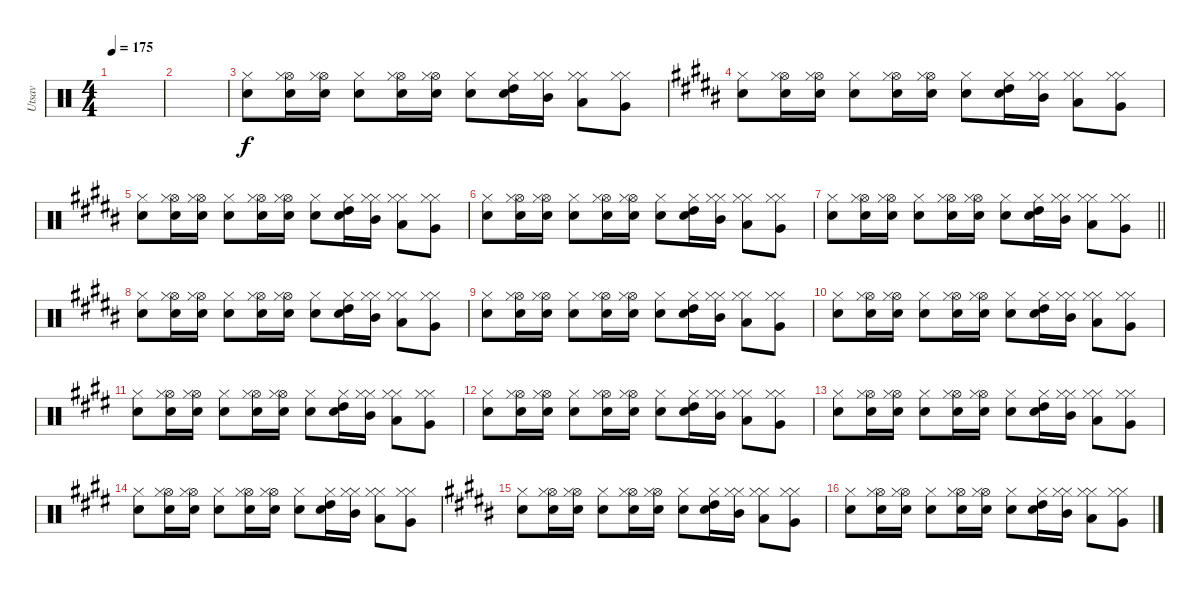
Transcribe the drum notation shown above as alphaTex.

\track ("Utsav" "Utsav") {instrument percussion}
\staff {score}
\articulation defaults
\ts (4 4)
\tempo 175
\clef neutral
\ks c
|
|
("Electric Snare (hit)" "Hi-Hat (closed)").8 ("Hi-Hat (open)" "Snare (hit) 2" "Hi-Hat (closed)").16 ("Hi-Hat (open)" "Snare (hit) 2" "Hi-Hat (closed)").16 ("Electric Snare (hit)" "Hi-Hat (closed)").8 ("Hi-Hat (open)" "Snare (hit) 2" "Hi-Hat (closed)").16 ("Hi-Hat (open)" "Snare (hit) 2" "Hi-Hat (closed)").16 ("Electric Snare (hit)" "Hi-Hat (closed)").8 ("Hi-Hat (closed)" "High Tom (hit)" "Snare (hit)").16 ("Hi-Hat (closed)" "Mid Tom (hit)" "Hi-Hat (closed)").16 ("Hi-Hat (closed)" "Low Tom (hit)" "Hi-Hat (closed)").8 ("Hi-Hat (closed)" "Very Low Tom (hit)" "Hi-Hat (closed)").8 |
\ks b
("Electric Snare (hit)" "Hi-Hat (closed)").8 ("Hi-Hat (open)" "Snare (hit) 2" "Hi-Hat (closed)").16 ("Hi-Hat (open)" "Snare (hit) 2" "Hi-Hat (closed)").16 ("Electric Snare (hit)" "Hi-Hat (closed)").8 ("Hi-Hat (open)" "Snare (hit) 2" "Hi-Hat (closed)").16 ("Hi-Hat (open)" "Snare (hit) 2" "Hi-Hat (closed)").16 ("Electric Snare (hit)" "Hi-Hat (closed)").8 ("Hi-Hat (closed)" "High Tom (hit)" "Snare (hit)").16 ("Hi-Hat (closed)" "Mid Tom (hit)" "Hi-Hat (closed)").16 ("Hi-Hat (closed)" "Low Tom (hit)" "Hi-Hat (closed)").8 ("Hi-Hat (closed)" "Very Low Tom (hit)" "Hi-Hat (closed)").8 |
("Electric Snare (hit)" "Hi-Hat (closed)").8 ("Hi-Hat (open)" "Snare (hit) 2" "Hi-Hat (closed)").16 ("Hi-Hat (open)" "Snare (hit) 2" "Hi-Hat (closed)").16 ("Electric Snare (hit)" "Hi-Hat (closed)").8 ("Hi-Hat (open)" "Snare (hit) 2" "Hi-Hat (closed)").16 ("Hi-Hat (open)" "Snare (hit) 2" "Hi-Hat (closed)").16 ("Electric Snare (hit)" "Hi-Hat (closed)").8 ("Hi-Hat (closed)" "High Tom (hit)" "Snare (hit)").16 ("Hi-Hat (closed)" "Mid Tom (hit)" "Hi-Hat (closed)").16 ("Hi-Hat (closed)" "Low Tom (hit)" "Hi-Hat (closed)").8 ("Hi-Hat (closed)" "Very Low Tom (hit)" "Hi-Hat (closed)").8 |
("Electric Snare (hit)" "Hi-Hat (closed)").8 ("Hi-Hat (open)" "Snare (hit) 2" "Hi-Hat (closed)").16 ("Hi-Hat (open)" "Snare (hit) 2" "Hi-Hat (closed)").16 ("Electric Snare (hit)" "Hi-Hat (closed)").8 ("Hi-Hat (open)" "Snare (hit) 2" "Hi-Hat (closed)").16 ("Hi-Hat (open)" "Snare (hit) 2" "Hi-Hat (closed)").16 ("Electric Snare (hit)" "Hi-Hat (closed)").8 ("Hi-Hat (closed)" "High Tom (hit)" "Snare (hit)").16 ("Hi-Hat (closed)" "Mid Tom (hit)" "Hi-Hat (closed)").16 ("Hi-Hat (closed)" "Low Tom (hit)" "Hi-Hat (closed)").8 ("Hi-Hat (closed)" "Very Low Tom (hit)" "Hi-Hat (closed)").8 |
\barLineRight lightlight
("Electric Snare (hit)" "Hi-Hat (closed)").8 ("Hi-Hat (open)" "Snare (hit) 2" "Hi-Hat (closed)").16 ("Hi-Hat (open)" "Snare (hit) 2" "Hi-Hat (closed)").16 ("Electric Snare (hit)" "Hi-Hat (closed)").8 ("Hi-Hat (open)" "Snare (hit) 2" "Hi-Hat (closed)").16 ("Hi-Hat (open)" "Snare (hit) 2" "Hi-Hat (closed)").16 ("Electric Snare (hit)" "Hi-Hat (closed)").8 ("Hi-Hat (closed)" "High Tom (hit)" "Snare (hit)").16 ("Hi-Hat (closed)" "Mid Tom (hit)" "Hi-Hat (closed)").16 ("Hi-Hat (closed)" "Low Tom (hit)" "Hi-Hat (closed)").8 ("Hi-Hat (closed)" "Very Low Tom (hit)" "Hi-Hat (closed)").8 |
("Electric Snare (hit)" "Hi-Hat (closed)").8 ("Hi-Hat (open)" "Snare (hit) 2" "Hi-Hat (closed)").16 ("Hi-Hat (open)" "Snare (hit) 2" "Hi-Hat (closed)").16 ("Electric Snare (hit)" "Hi-Hat (closed)").8 ("Hi-Hat (open)" "Snare (hit) 2" "Hi-Hat (closed)").16 ("Hi-Hat (open)" "Snare (hit) 2" "Hi-Hat (closed)").16 ("Electric Snare (hit)" "Hi-Hat (closed)").8 ("Hi-Hat (closed)" "High Tom (hit)" "Snare (hit)").16 ("Hi-Hat (closed)" "Mid Tom (hit)" "Hi-Hat (closed)").16 ("Hi-Hat (closed)" "Low Tom (hit)" "Hi-Hat (closed)").8 ("Hi-Hat (closed)" "Very Low Tom (hit)" "Hi-Hat (closed)").8 |
("Electric Snare (hit)" "Hi-Hat (closed)").8 ("Hi-Hat (open)" "Snare (hit) 2" "Hi-Hat (closed)").16 ("Hi-Hat (open)" "Snare (hit) 2" "Hi-Hat (closed)").16 ("Electric Snare (hit)" "Hi-Hat (closed)").8 ("Hi-Hat (open)" "Snare (hit) 2" "Hi-Hat (closed)").16 ("Hi-Hat (open)" "Snare (hit) 2" "Hi-Hat (closed)").16 ("Electric Snare (hit)" "Hi-Hat (closed)").8 ("Hi-Hat (closed)" "High Tom (hit)" "Snare (hit)").16 ("Hi-Hat (closed)" "Mid Tom (hit)" "Hi-Hat (closed)").16 ("Hi-Hat (closed)" "Low Tom (hit)" "Hi-Hat (closed)").8 ("Hi-Hat (closed)" "Very Low Tom (hit)" "Hi-Hat (closed)").8 |
("Electric Snare (hit)" "Hi-Hat (closed)").8 ("Hi-Hat (open)" "Snare (hit) 2" "Hi-Hat (closed)").16 ("Hi-Hat (open)" "Snare (hit) 2" "Hi-Hat (closed)").16 ("Electric Snare (hit)" "Hi-Hat (closed)").8 ("Hi-Hat (open)" "Snare (hit) 2" "Hi-Hat (closed)").16 ("Hi-Hat (open)" "Snare (hit) 2" "Hi-Hat (closed)").16 ("Electric Snare (hit)" "Hi-Hat (closed)").8 ("Hi-Hat (closed)" "High Tom (hit)" "Snare (hit)").16 ("Hi-Hat (closed)" "Mid Tom (hit)" "Hi-Hat (closed)").16 ("Hi-Hat (closed)" "Low Tom (hit)" "Hi-Hat (closed)").8 ("Hi-Hat (closed)" "Very Low Tom (hit)" "Hi-Hat (closed)").8 |
\ks e
("Electric Snare (hit)" "Hi-Hat (closed)").8 ("Hi-Hat (open)" "Snare (hit) 2" "Hi-Hat (closed)").16 ("Hi-Hat (open)" "Snare (hit) 2" "Hi-Hat (closed)").16 ("Electric Snare (hit)" "Hi-Hat (closed)").8 ("Hi-Hat (open)" "Snare (hit) 2" "Hi-Hat (closed)").16 ("Hi-Hat (open)" "Snare (hit) 2" "Hi-Hat (closed)").16 ("Electric Snare (hit)" "Hi-Hat (closed)").8 ("Hi-Hat (closed)" "High Tom (hit)" "Snare (hit)").16 ("Hi-Hat (closed)" "Mid Tom (hit)" "Hi-Hat (closed)").16 ("Hi-Hat (closed)" "Low Tom (hit)" "Hi-Hat (closed)").8 ("Hi-Hat (closed)" "Very Low Tom (hit)" "Hi-Hat (closed)").8 |
("Electric Snare (hit)" "Hi-Hat (closed)").8 ("Hi-Hat (open)" "Snare (hit) 2" "Hi-Hat (closed)").16 ("Hi-Hat (open)" "Snare (hit) 2" "Hi-Hat (closed)").16 ("Electric Snare (hit)" "Hi-Hat (closed)").8 ("Hi-Hat (open)" "Snare (hit) 2" "Hi-Hat (closed)").16 ("Hi-Hat (open)" "Snare (hit) 2" "Hi-Hat (closed)").16 ("Electric Snare (hit)" "Hi-Hat (closed)").8 ("Hi-Hat (closed)" "High Tom (hit)" "Snare (hit)").16 ("Hi-Hat (closed)" "Mid Tom (hit)" "Hi-Hat (closed)").16 ("Hi-Hat (closed)" "Low Tom (hit)" "Hi-Hat (closed)").8 ("Hi-Hat (closed)" "Very Low Tom (hit)" "Hi-Hat (closed)").8 |
("Electric Snare (hit)" "Hi-Hat (closed)").8 ("Hi-Hat (open)" "Snare (hit) 2" "Hi-Hat (closed)").16 ("Hi-Hat (open)" "Snare (hit) 2" "Hi-Hat (closed)").16 ("Electric Snare (hit)" "Hi-Hat (closed)").8 ("Hi-Hat (open)" "Snare (hit) 2" "Hi-Hat (closed)").16 ("Hi-Hat (open)" "Snare (hit) 2" "Hi-Hat (closed)").16 ("Electric Snare (hit)" "Hi-Hat (closed)").8 ("Hi-Hat (closed)" "High Tom (hit)" "Snare (hit)").16 ("Hi-Hat (closed)" "Mid Tom (hit)" "Hi-Hat (closed)").16 ("Hi-Hat (closed)" "Low Tom (hit)" "Hi-Hat (closed)").8 ("Hi-Hat (closed)" "Very Low Tom (hit)" "Hi-Hat (closed)").8 |
("Electric Snare (hit)" "Hi-Hat (closed)").8 ("Hi-Hat (open)" "Snare (hit) 2" "Hi-Hat (closed)").16 ("Hi-Hat (open)" "Snare (hit) 2" "Hi-Hat (closed)").16 ("Electric Snare (hit)" "Hi-Hat (closed)").8 ("Hi-Hat (open)" "Snare (hit) 2" "Hi-Hat (closed)").16 ("Hi-Hat (open)" "Snare (hit) 2" "Hi-Hat (closed)").16 ("Electric Snare (hit)" "Hi-Hat (closed)").8 ("Hi-Hat (closed)" "High Tom (hit)" "Snare (hit)").16 ("Hi-Hat (closed)" "Mid Tom (hit)" "Hi-Hat (closed)").16 ("Hi-Hat (closed)" "Low Tom (hit)" "Hi-Hat (closed)").8 ("Hi-Hat (closed)" "Very Low Tom (hit)" "Hi-Hat (closed)").8 |
\ks b
("Electric Snare (hit)" "Hi-Hat (closed)").8 ("Hi-Hat (open)" "Snare (hit) 2" "Hi-Hat (closed)").16 ("Hi-Hat (open)" "Snare (hit) 2" "Hi-Hat (closed)").16 ("Electric Snare (hit)" "Hi-Hat (closed)").8 ("Hi-Hat (open)" "Snare (hit) 2" "Hi-Hat (closed)").16 ("Hi-Hat (open)" "Snare (hit) 2" "Hi-Hat (closed)").16 ("Electric Snare (hit)" "Hi-Hat (closed)").8 ("Hi-Hat (closed)" "High Tom (hit)" "Snare (hit)").16 ("Hi-Hat (closed)" "Mid Tom (hit)" "Hi-Hat (closed)").16 ("Hi-Hat (closed)" "Low Tom (hit)" "Hi-Hat (closed)").8 ("Hi-Hat (closed)" "Very Low Tom (hit)" "Hi-Hat (closed)").8 |
("Electric Snare (hit)" "Hi-Hat (closed)").8 ("Hi-Hat (open)" "Snare (hit) 2" "Hi-Hat (closed)").16 ("Hi-Hat (open)" "Snare (hit) 2" "Hi-Hat (closed)").16 ("Electric Snare (hit)" "Hi-Hat (closed)").8 ("Hi-Hat (open)" "Snare (hit) 2" "Hi-Hat (closed)").16 ("Hi-Hat (open)" "Snare (hit) 2" "Hi-Hat (closed)").16 ("Electric Snare (hit)" "Hi-Hat (closed)").8 ("Hi-Hat (closed)" "High Tom (hit)" "Snare (hit)").16 ("Hi-Hat (closed)" "Mid Tom (hit)" "Hi-Hat (closed)").16 ("Hi-Hat (closed)" "Low Tom (hit)" "Hi-Hat (closed)").8 ("Hi-Hat (closed)" "Very Low Tom (hit)" "Hi-Hat (closed)").8
